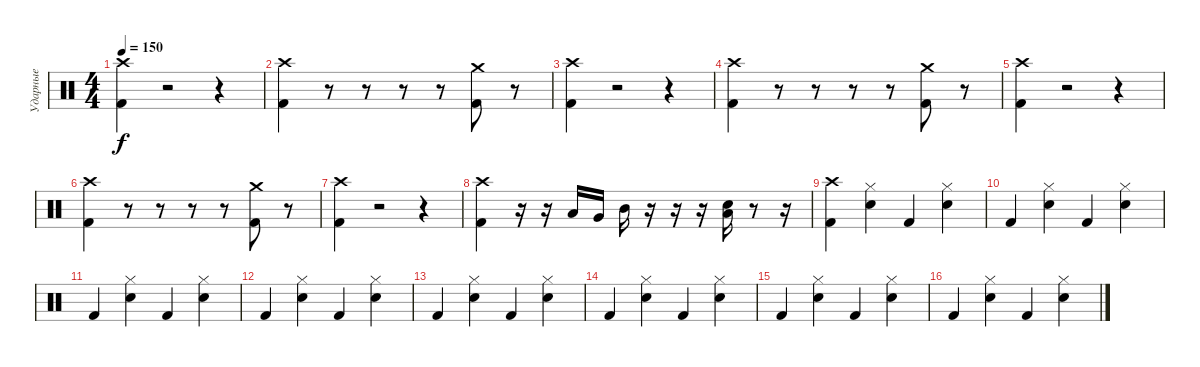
\track ("Ударные" "Ударные") {instrument percussion}
\staff {score}
\articulation defaults
\ts (4 4)
\tempo 150
\clef neutral
\ks c
("Crash high (hit)" "Kick (hit) 2").4{dy f} r.2 r.4 |
("Kick (hit) 2" "Crash high (hit)").4 r.8 r.8 r.8 r.8 ("Kick (hit) 2" "Crash medium (hit)").8 r.8 |
("Crash high (hit)" "Kick (hit) 2").4 r.2 r.4 |
("Kick (hit) 2" "Crash high (hit)").4 r.8 r.8 r.8 r.8 ("Kick (hit) 2" "Crash medium (hit)").8 r.8 |
("Crash high (hit)" "Kick (hit) 2").4 r.2 r.4 |
("Kick (hit) 2" "Crash high (hit)").4 r.8 r.8 r.8 r.8 ("Kick (hit) 2" "Crash medium (hit)").8 r.8 |
("Kick (hit) 2" "Crash high (hit)").4 r.2 r.4 |
("Kick (hit) 2" "Crash high (hit)").4 r.16 r.16 "Low Floor Tom (hit)".16 "Very Low Tom (hit)".16 "Mid Tom (hit)".16 r.16 r.16 r.16 ("Electric Snare (hit)" "Low Floor Tom (hit)").16 r.8 r.16 |
("Kick (hit) 2" "Crash high (hit)").4 ("Electric Snare (hit)" "Hi-Hat (closed)").4 "Kick (hit) 2".4 ("Electric Snare (hit)" "Hi-Hat (closed)").4 |
"Kick (hit) 2".4 ("Electric Snare (hit)" "Hi-Hat (closed)").4 "Kick (hit) 2".4 ("Electric Snare (hit)" "Hi-Hat (closed)").4 |
"Kick (hit) 2".4 ("Electric Snare (hit)" "Hi-Hat (closed)").4 "Kick (hit) 2".4 ("Electric Snare (hit)" "Hi-Hat (closed)").4 |
"Kick (hit) 2".4 ("Electric Snare (hit)" "Hi-Hat (closed)").4 "Kick (hit) 2".4 ("Electric Snare (hit)" "Hi-Hat (closed)").4 |
"Kick (hit) 2".4 ("Electric Snare (hit)" "Hi-Hat (closed)").4 "Kick (hit) 2".4 ("Electric Snare (hit)" "Hi-Hat (closed)").4 |
"Kick (hit) 2".4 ("Electric Snare (hit)" "Hi-Hat (closed)").4 "Kick (hit) 2".4 ("Electric Snare (hit)" "Hi-Hat (closed)").4 |
"Kick (hit) 2".4 ("Electric Snare (hit)" "Hi-Hat (closed)").4 "Kick (hit) 2".4 ("Electric Snare (hit)" "Hi-Hat (closed)").4 |
"Kick (hit) 2".4 ("Electric Snare (hit)" "Hi-Hat (closed)").4 "Kick (hit) 2".4 ("Electric Snare (hit)" "Hi-Hat (closed)").4
